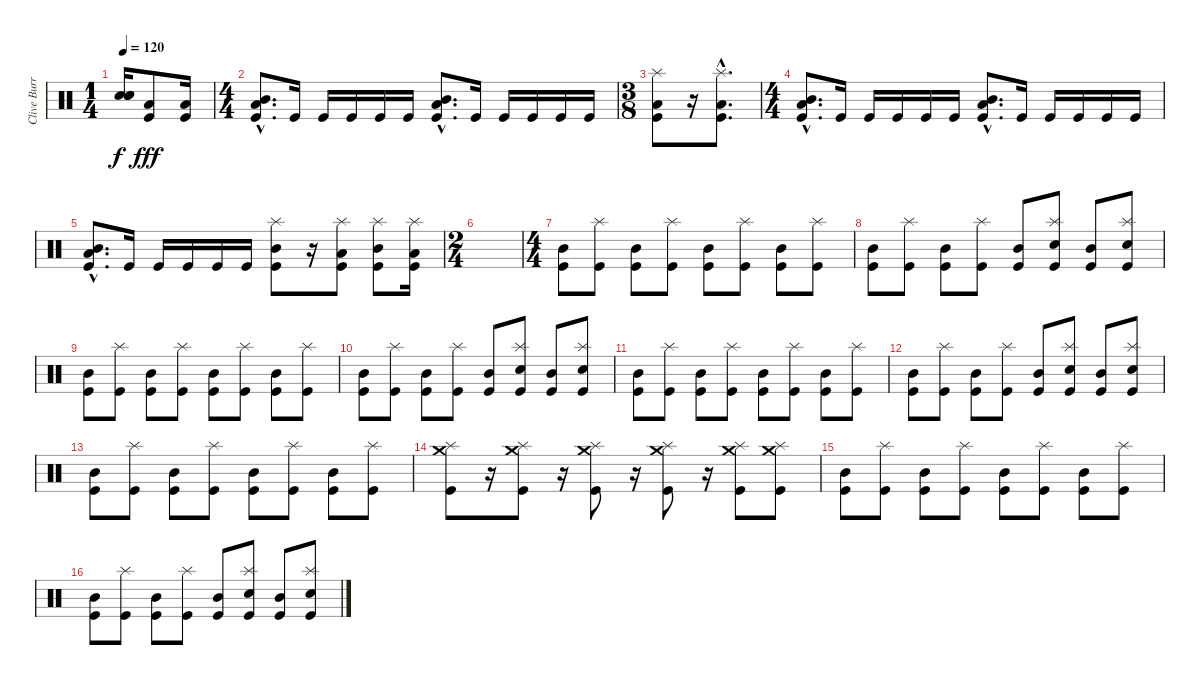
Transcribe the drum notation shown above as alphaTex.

\track ("Clive Burr" "Clive Burr") {instrument percussion}
\staff {score}
\articulation defaults
\ts (1 4)
\tempo 120
\clef neutral
\ks c
("Snare (hit)"{t} "Snare (hit)"{t} "Snare (hit)"{t}).16{dy f} ("Kick (hit)" "Low Floor Tom (hit)").8{dy fff} ("Kick (hit)" "Low Floor Tom (hit)").16 |
\ts (4 4)
("Kick (hit)"{hac} "Low Floor Tom (hit)"{hac} "Mid Tom (hit)"{hac}).8{d} "Kick (hit)".16 "Kick (hit)".16 "Kick (hit)".16 "Kick (hit)".16 "Kick (hit)".16 ("Kick (hit)"{hac} "Low Floor Tom (hit)"{hac} "Mid Tom (hit)"{hac}).8{d} "Kick (hit)".16 "Kick (hit)".16 "Kick (hit)".16 "Kick (hit)".16 "Kick (hit)".16 |
\ts (3 8)
("Kick (hit)" "Low Floor Tom (hit)" "Splash (hit)").8 r.16 ("Kick (hit)"{hac} "Low Floor Tom (hit)"{hac} "Splash (hit)"{hac}).8{d} |
\ts (4 4)
("Kick (hit)"{hac} "Low Floor Tom (hit)"{hac} "Mid Tom (hit)"{hac}).8{d} "Kick (hit)".16 "Kick (hit)".16 "Kick (hit)".16 "Kick (hit)".16 "Kick (hit)".16 ("Kick (hit)"{hac} "Low Floor Tom (hit)"{hac} "Mid Tom (hit)"{hac}).8{d} "Kick (hit)".16 "Kick (hit)".16 "Kick (hit)".16 "Kick (hit)".16 "Kick (hit)".16 |
("Kick (hit)"{hac} "Low Floor Tom (hit)"{hac} "Mid Tom (hit)"{hac}).8{d} "Kick (hit)".16 "Kick (hit)".16 "Kick (hit)".16 "Kick (hit)".16 "Kick (hit)".16 ("Kick (hit)" "Mid Tom (hit)" "Splash (hit)").8 r.16 ("Kick (hit)" "Low Floor Tom (hit)" "Splash (hit)").8 ("Kick (hit)" "Mid Tom (hit)" "Splash (hit)").8 ("Kick (hit)" "Low Floor Tom (hit)" "Splash (hit)").16 |
\ts (2 4)
|
\ts (4 4)
("Kick (hit)" "Mid Tom (hit)").8 ("Kick (hit)" "Splash (hit)").8 ("Kick (hit)" "Mid Tom (hit)").8 ("Kick (hit)" "Splash (hit)").8 ("Kick (hit)" "Mid Tom (hit)").8 ("Kick (hit)" "Splash (hit)").8 ("Kick (hit)" "Mid Tom (hit)").8 ("Kick (hit)" "Splash (hit)").8 |
("Kick (hit)" "Mid Tom (hit)").8 ("Kick (hit)" "Splash (hit)").8 ("Kick (hit)" "Mid Tom (hit)").8 ("Kick (hit)" "Splash (hit)").8 ("Kick (hit)" "Mid Tom (hit)").8 ("Kick (hit)" "Splash (hit)" "Electric Snare (hit)").8 ("Kick (hit)" "Mid Tom (hit)").8 ("Kick (hit)" "Splash (hit)" "Electric Snare (hit)").8 |
("Kick (hit)" "Mid Tom (hit)").8 ("Kick (hit)" "Splash (hit)").8 ("Kick (hit)" "Mid Tom (hit)").8 ("Kick (hit)" "Splash (hit)").8 ("Kick (hit)" "Mid Tom (hit)").8 ("Kick (hit)" "Splash (hit)").8 ("Kick (hit)" "Mid Tom (hit)").8 ("Kick (hit)" "Splash (hit)").8 |
("Kick (hit)" "Mid Tom (hit)").8 ("Kick (hit)" "Splash (hit)").8 ("Kick (hit)" "Mid Tom (hit)").8 ("Kick (hit)" "Splash (hit)").8 ("Kick (hit)" "Mid Tom (hit)").8 ("Kick (hit)" "Splash (hit)" "Electric Snare (hit)").8 ("Kick (hit)" "Mid Tom (hit)").8 ("Kick (hit)" "Splash (hit)" "Electric Snare (hit)").8 |
("Kick (hit)" "Mid Tom (hit)").8 ("Kick (hit)" "Splash (hit)").8 ("Kick (hit)" "Mid Tom (hit)").8 ("Kick (hit)" "Splash (hit)").8 ("Kick (hit)" "Mid Tom (hit)").8 ("Kick (hit)" "Splash (hit)").8 ("Kick (hit)" "Mid Tom (hit)").8 ("Kick (hit)" "Splash (hit)").8 |
("Kick (hit)" "Mid Tom (hit)").8 ("Kick (hit)" "Splash (hit)").8 ("Kick (hit)" "Mid Tom (hit)").8 ("Kick (hit)" "Splash (hit)").8 ("Kick (hit)" "Mid Tom (hit)").8 ("Kick (hit)" "Splash (hit)" "Electric Snare (hit)").8 ("Kick (hit)" "Mid Tom (hit)").8 ("Kick (hit)" "Splash (hit)" "Electric Snare (hit)").8 |
("Kick (hit)" "Mid Tom (hit)").8 ("Kick (hit)" "Splash (hit)").8 ("Kick (hit)" "Mid Tom (hit)").8 ("Kick (hit)" "Splash (hit)").8 ("Kick (hit)" "Mid Tom (hit)").8 ("Kick (hit)" "Splash (hit)").8 ("Kick (hit)" "Mid Tom (hit)").8 ("Kick (hit)" "Splash (hit)").8 |
("Crash medium (hit)" "Splash (hit)" "Kick (hit)").8 r.16 ("Crash medium (hit)" "Splash (hit)" "Kick (hit)").8 r.16 ("Crash medium (hit)" "Splash (hit)" "Kick (hit)").8 r.16 ("Crash medium (hit)" "Splash (hit)" "Kick (hit)").8 r.16 ("Crash medium (hit)" "Splash (hit)" "Kick (hit)").8 ("Crash medium (hit)" "Splash (hit)" "Kick (hit)").8 |
("Kick (hit)" "Mid Tom (hit)").8 ("Kick (hit)" "Splash (hit)").8 ("Kick (hit)" "Mid Tom (hit)").8 ("Kick (hit)" "Splash (hit)").8 ("Kick (hit)" "Mid Tom (hit)").8 ("Kick (hit)" "Splash (hit)").8 ("Kick (hit)" "Mid Tom (hit)").8 ("Kick (hit)" "Splash (hit)").8 |
("Kick (hit)" "Mid Tom (hit)").8 ("Kick (hit)" "Splash (hit)").8 ("Kick (hit)" "Mid Tom (hit)").8 ("Kick (hit)" "Splash (hit)").8 ("Kick (hit)" "Mid Tom (hit)").8 ("Kick (hit)" "Splash (hit)" "Electric Snare (hit)").8 ("Kick (hit)" "Mid Tom (hit)").8 ("Kick (hit)" "Splash (hit)" "Electric Snare (hit)").8
